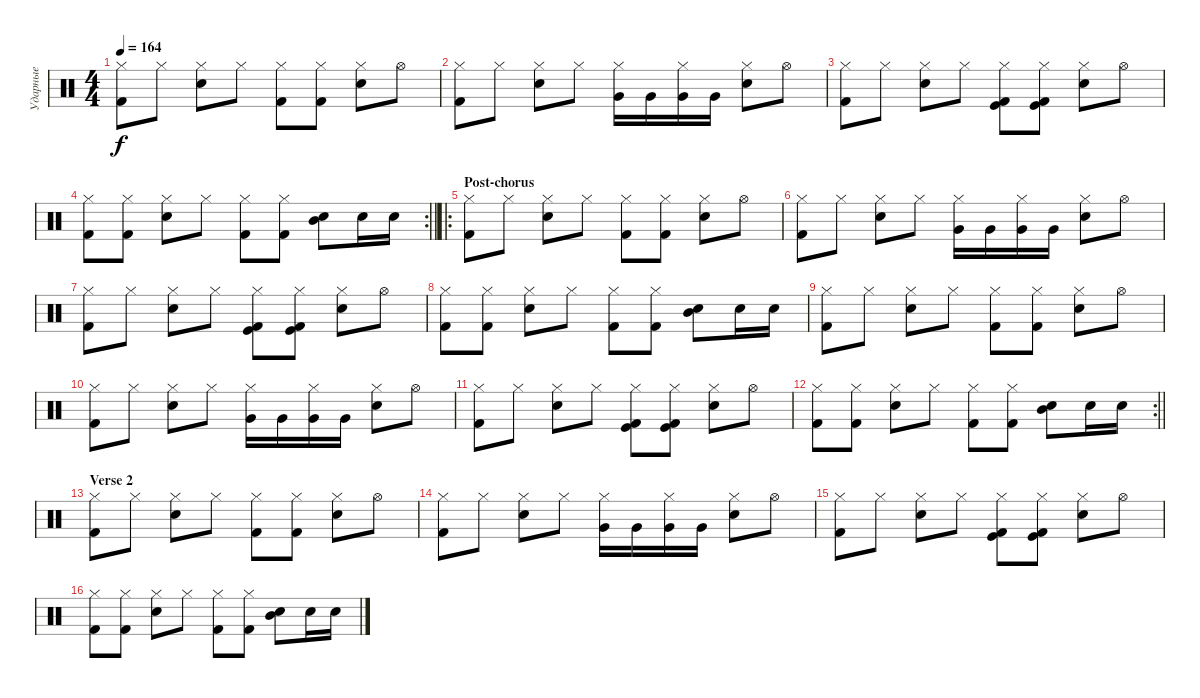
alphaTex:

\track ("Ударные" "Ударные") {instrument percussion}
\staff {score}
\articulation defaults
\ts (4 4)
\tempo 164
\clef neutral
\ks c
("Hi-Hat (closed)" "Kick (hit) 2").8{dy f} "Hi-Hat (closed)".8 ("Hi-Hat (closed)" "Snare (hit) 2").8 "Hi-Hat (closed)".8 ("Hi-Hat (closed)" "Kick (hit) 2").8 ("Hi-Hat (closed)" "Kick (hit) 2").8 ("Hi-Hat (closed)" "Snare (hit) 2").8 "Hi-Hat (open)".8 |
("Hi-Hat (closed)" "Kick (hit) 2").8 "Hi-Hat (closed)".8 ("Hi-Hat (closed)" "Snare (hit) 2").8 "Hi-Hat (closed)".8 ("Hi-Hat (closed)" "Very Low Tom (hit)").16 "Very Low Tom (hit)".16 ("Hi-Hat (closed)" "Very Low Tom (hit)").16 "Very Low Tom (hit)".16 ("Hi-Hat (closed)" "Snare (hit) 2").8 "Hi-Hat (open)".8 |
("Hi-Hat (closed)" "Kick (hit) 2").8 "Hi-Hat (closed)".8 ("Hi-Hat (closed)" "Snare (hit) 2").8 "Hi-Hat (closed)".8 ("Hi-Hat (closed)" "Kick (hit)" "Kick (hit) 2").8 ("Hi-Hat (closed)" "Kick (hit)" "Kick (hit) 2").8 ("Hi-Hat (closed)" "Snare (hit) 2").8 "Hi-Hat (open)".8 |
\rc 2
\barLineRight lightlight
("Hi-Hat (closed)" "Kick (hit) 2").8 ("Hi-Hat (closed)" "Kick (hit) 2").8 ("Hi-Hat (closed)" "Snare (hit) 2").8 "Hi-Hat (closed)".8 ("Hi-Hat (closed)" "Kick (hit) 2").8 ("Hi-Hat (closed)" "Kick (hit) 2").8 ("Snare (hit) 2" "Mid Tom (hit)").8 "Snare (hit) 2".16 "Snare (hit) 2".16 |
\ro
\section ("" "Post-chorus")
("Hi-Hat (closed)" "Kick (hit) 2").8 "Hi-Hat (closed)".8 ("Hi-Hat (closed)" "Snare (hit) 2").8 "Hi-Hat (closed)".8 ("Hi-Hat (closed)" "Kick (hit) 2").8 ("Hi-Hat (closed)" "Kick (hit) 2").8 ("Hi-Hat (closed)" "Snare (hit) 2").8 "Hi-Hat (open)".8 |
("Hi-Hat (closed)" "Kick (hit) 2").8 "Hi-Hat (closed)".8 ("Hi-Hat (closed)" "Snare (hit) 2").8 "Hi-Hat (closed)".8 ("Hi-Hat (closed)" "Very Low Tom (hit)").16 "Very Low Tom (hit)".16 ("Hi-Hat (closed)" "Very Low Tom (hit)").16 "Very Low Tom (hit)".16 ("Hi-Hat (closed)" "Snare (hit) 2").8 "Hi-Hat (open)".8 |
("Hi-Hat (closed)" "Kick (hit) 2").8 "Hi-Hat (closed)".8 ("Hi-Hat (closed)" "Snare (hit) 2").8 "Hi-Hat (closed)".8 ("Hi-Hat (closed)" "Kick (hit)" "Kick (hit) 2").8 ("Hi-Hat (closed)" "Kick (hit)" "Kick (hit) 2").8 ("Hi-Hat (closed)" "Snare (hit) 2").8 "Hi-Hat (open)".8 |
("Hi-Hat (closed)" "Kick (hit) 2").8 ("Hi-Hat (closed)" "Kick (hit) 2").8 ("Hi-Hat (closed)" "Snare (hit) 2").8 "Hi-Hat (closed)".8 ("Hi-Hat (closed)" "Kick (hit) 2").8 ("Hi-Hat (closed)" "Kick (hit) 2").8 ("Snare (hit) 2" "Mid Tom (hit)").8 "Snare (hit) 2".16 "Snare (hit) 2".16 |
("Hi-Hat (closed)" "Kick (hit) 2").8 "Hi-Hat (closed)".8 ("Hi-Hat (closed)" "Snare (hit) 2").8 "Hi-Hat (closed)".8 ("Hi-Hat (closed)" "Kick (hit) 2").8 ("Hi-Hat (closed)" "Kick (hit) 2").8 ("Hi-Hat (closed)" "Snare (hit) 2").8 "Hi-Hat (open)".8 |
("Hi-Hat (closed)" "Kick (hit) 2").8 "Hi-Hat (closed)".8 ("Hi-Hat (closed)" "Snare (hit) 2").8 "Hi-Hat (closed)".8 ("Hi-Hat (closed)" "Very Low Tom (hit)").16 "Very Low Tom (hit)".16 ("Hi-Hat (closed)" "Very Low Tom (hit)").16 "Very Low Tom (hit)".16 ("Hi-Hat (closed)" "Snare (hit) 2").8 "Hi-Hat (open)".8 |
("Hi-Hat (closed)" "Kick (hit) 2").8 "Hi-Hat (closed)".8 ("Hi-Hat (closed)" "Snare (hit) 2").8 "Hi-Hat (closed)".8 ("Hi-Hat (closed)" "Kick (hit)" "Kick (hit) 2").8 ("Hi-Hat (closed)" "Kick (hit)" "Kick (hit) 2").8 ("Hi-Hat (closed)" "Snare (hit) 2").8 "Hi-Hat (open)".8 |
\rc 2
\barLineRight lightlight
("Hi-Hat (closed)" "Kick (hit) 2").8 ("Hi-Hat (closed)" "Kick (hit) 2").8 ("Hi-Hat (closed)" "Snare (hit) 2").8 "Hi-Hat (closed)".8 ("Hi-Hat (closed)" "Kick (hit) 2").8 ("Hi-Hat (closed)" "Kick (hit) 2").8 ("Snare (hit) 2" "Mid Tom (hit)").8 "Snare (hit) 2".16 "Snare (hit) 2".16 |
\section ("" "Verse 2")
("Hi-Hat (closed)" "Kick (hit) 2").8 "Hi-Hat (closed)".8 ("Hi-Hat (closed)" "Snare (hit) 2").8 "Hi-Hat (closed)".8 ("Hi-Hat (closed)" "Kick (hit) 2").8 ("Hi-Hat (closed)" "Kick (hit) 2").8 ("Hi-Hat (closed)" "Snare (hit) 2").8 "Hi-Hat (open)".8 |
("Hi-Hat (closed)" "Kick (hit) 2").8 "Hi-Hat (closed)".8 ("Hi-Hat (closed)" "Snare (hit) 2").8 "Hi-Hat (closed)".8 ("Hi-Hat (closed)" "Very Low Tom (hit)").16 "Very Low Tom (hit)".16 ("Hi-Hat (closed)" "Very Low Tom (hit)").16 "Very Low Tom (hit)".16 ("Hi-Hat (closed)" "Snare (hit) 2").8 "Hi-Hat (open)".8 |
("Hi-Hat (closed)" "Kick (hit) 2").8 "Hi-Hat (closed)".8 ("Hi-Hat (closed)" "Snare (hit) 2").8 "Hi-Hat (closed)".8 ("Hi-Hat (closed)" "Kick (hit)" "Kick (hit) 2").8 ("Hi-Hat (closed)" "Kick (hit)" "Kick (hit) 2").8 ("Hi-Hat (closed)" "Snare (hit) 2").8 "Hi-Hat (open)".8 |
("Hi-Hat (closed)" "Kick (hit) 2").8 ("Hi-Hat (closed)" "Kick (hit) 2").8 ("Hi-Hat (closed)" "Snare (hit) 2").8 "Hi-Hat (closed)".8 ("Hi-Hat (closed)" "Kick (hit) 2").8 ("Hi-Hat (closed)" "Kick (hit) 2").8 ("Snare (hit) 2" "Mid Tom (hit)").8 "Snare (hit) 2".16 "Snare (hit) 2".16
